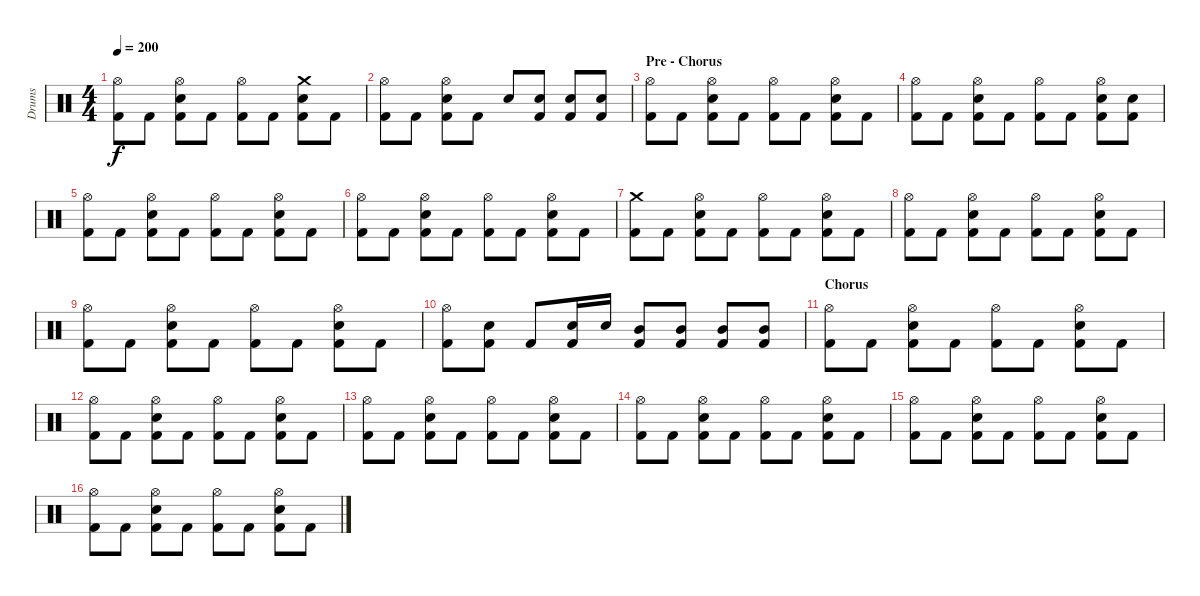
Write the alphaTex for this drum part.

\track ("Drums" "Drums") {instrument percussion}
\staff {score}
\articulation defaults
\ts (4 4)
\tempo 200
\clef neutral
\ks c
("Hi-Hat (open)" "Kick (hit) 2").8{dy f} "Kick (hit) 2".8 ("Hi-Hat (open)" "Snare (hit) 2" "Kick (hit) 2").8 "Kick (hit) 2".8 ("Hi-Hat (open)" "Kick (hit) 2").8 "Kick (hit) 2".8 ("Crash medium (hit)" "Snare (hit) 2" "Kick (hit) 2").8 "Kick (hit) 2".8 |
("Hi-Hat (open)" "Kick (hit) 2").8 "Kick (hit) 2".8 ("Hi-Hat (open)" "Snare (hit) 2" "Kick (hit) 2").8 "Kick (hit) 2".8 "Snare (hit) 2".8 ("Snare (hit) 2" "Kick (hit) 2").8 ("Snare (hit) 2" "Kick (hit) 2").8 ("Snare (hit) 2" "Kick (hit) 2").8 |
\section ("" "Pre - Chorus")
("Hi-Hat (open)" "Kick (hit) 2").8 "Kick (hit) 2".8 ("Hi-Hat (open)" "Snare (hit) 2" "Kick (hit) 2").8 "Kick (hit) 2".8 ("Hi-Hat (open)" "Kick (hit) 2").8 "Kick (hit) 2".8 ("Hi-Hat (open)" "Snare (hit) 2" "Kick (hit) 2").8 "Kick (hit) 2".8 |
("Hi-Hat (open)" "Kick (hit) 2").8 "Kick (hit) 2".8 ("Hi-Hat (open)" "Snare (hit) 2" "Kick (hit) 2").8 "Kick (hit) 2".8 ("Hi-Hat (open)" "Kick (hit) 2").8 "Kick (hit) 2".8 ("Hi-Hat (open)" "Snare (hit) 2" "Kick (hit) 2").8 ("Snare (hit) 2" "Kick (hit) 2").8 |
("Hi-Hat (open)" "Kick (hit) 2").8 "Kick (hit) 2".8 ("Hi-Hat (open)" "Snare (hit) 2" "Kick (hit) 2").8 "Kick (hit) 2".8 ("Hi-Hat (open)" "Kick (hit) 2").8 "Kick (hit) 2".8 ("Hi-Hat (open)" "Snare (hit) 2" "Kick (hit) 2").8 "Kick (hit) 2".8 |
("Hi-Hat (open)" "Kick (hit) 2").8 "Kick (hit) 2".8 ("Hi-Hat (open)" "Snare (hit) 2" "Kick (hit) 2").8 "Kick (hit) 2".8 ("Hi-Hat (open)" "Kick (hit) 2").8 "Kick (hit) 2".8 ("Hi-Hat (open)" "Snare (hit) 2" "Kick (hit) 2").8 "Kick (hit) 2".8 |
("Crash medium (hit)" "Kick (hit) 2").8 "Kick (hit) 2".8 ("Hi-Hat (open)" "Snare (hit) 2" "Kick (hit) 2").8 "Kick (hit) 2".8 ("Hi-Hat (open)" "Kick (hit) 2").8 "Kick (hit) 2".8 ("Hi-Hat (open)" "Snare (hit) 2" "Kick (hit) 2").8 "Kick (hit) 2".8 |
("Hi-Hat (open)" "Kick (hit) 2").8 "Kick (hit) 2".8 ("Hi-Hat (open)" "Snare (hit) 2" "Kick (hit) 2").8 "Kick (hit) 2".8 ("Hi-Hat (open)" "Kick (hit) 2").8 "Kick (hit) 2".8 ("Hi-Hat (open)" "Snare (hit) 2" "Kick (hit) 2").8 "Kick (hit) 2".8 |
("Hi-Hat (open)" "Kick (hit) 2").8 "Kick (hit) 2".8 ("Hi-Hat (open)" "Snare (hit) 2" "Kick (hit) 2").8 "Kick (hit) 2".8 ("Hi-Hat (open)" "Kick (hit) 2").8 "Kick (hit) 2".8 ("Hi-Hat (open)" "Snare (hit) 2" "Kick (hit) 2").8 "Kick (hit) 2".8 |
("Hi-Hat (open)" "Kick (hit) 2").8 ("Snare (hit) 2" "Kick (hit) 2").8 "Kick (hit) 2".8 ("Snare (hit) 2" "Kick (hit) 2").16 "Snare (hit) 2".16 ("Mid Tom (hit)" "Kick (hit) 2").8 ("Mid Tom (hit)" "Kick (hit) 2").8 ("Mid Tom (hit)" "Kick (hit) 2").8 ("Mid Tom (hit)" "Kick (hit) 2").8 |
\section ("" "Chorus")
("Hi-Hat (open)" "Kick (hit) 2").8 "Kick (hit) 2".8 ("Hi-Hat (open)" "Snare (hit) 2" "Kick (hit) 2").8 "Kick (hit) 2".8 ("Hi-Hat (open)" "Kick (hit) 2").8 "Kick (hit) 2".8 ("Hi-Hat (open)" "Snare (hit) 2" "Kick (hit) 2").8 "Kick (hit) 2".8 |
("Hi-Hat (open)" "Kick (hit) 2").8 "Kick (hit) 2".8 ("Hi-Hat (open)" "Snare (hit) 2" "Kick (hit) 2").8 "Kick (hit) 2".8 ("Hi-Hat (open)" "Kick (hit) 2").8 "Kick (hit) 2".8 ("Hi-Hat (open)" "Snare (hit) 2" "Kick (hit) 2").8 "Kick (hit) 2".8 |
("Hi-Hat (open)" "Kick (hit) 2").8 "Kick (hit) 2".8 ("Hi-Hat (open)" "Snare (hit) 2" "Kick (hit) 2").8 "Kick (hit) 2".8 ("Hi-Hat (open)" "Kick (hit) 2").8 "Kick (hit) 2".8 ("Hi-Hat (open)" "Snare (hit) 2" "Kick (hit) 2").8 "Kick (hit) 2".8 |
("Hi-Hat (open)" "Kick (hit) 2").8 "Kick (hit) 2".8 ("Hi-Hat (open)" "Snare (hit) 2" "Kick (hit) 2").8 "Kick (hit) 2".8 ("Hi-Hat (open)" "Kick (hit) 2").8 "Kick (hit) 2".8 ("Hi-Hat (open)" "Snare (hit) 2" "Kick (hit) 2").8 "Kick (hit) 2".8 |
("Hi-Hat (open)" "Kick (hit) 2").8 "Kick (hit) 2".8 ("Hi-Hat (open)" "Snare (hit) 2" "Kick (hit) 2").8 "Kick (hit) 2".8 ("Hi-Hat (open)" "Kick (hit) 2").8 "Kick (hit) 2".8 ("Hi-Hat (open)" "Snare (hit) 2" "Kick (hit) 2").8 "Kick (hit) 2".8 |
("Hi-Hat (open)" "Kick (hit) 2").8 "Kick (hit) 2".8 ("Hi-Hat (open)" "Snare (hit) 2" "Kick (hit) 2").8 "Kick (hit) 2".8 ("Hi-Hat (open)" "Kick (hit) 2").8 "Kick (hit) 2".8 ("Hi-Hat (open)" "Snare (hit) 2" "Kick (hit) 2").8 "Kick (hit) 2".8
